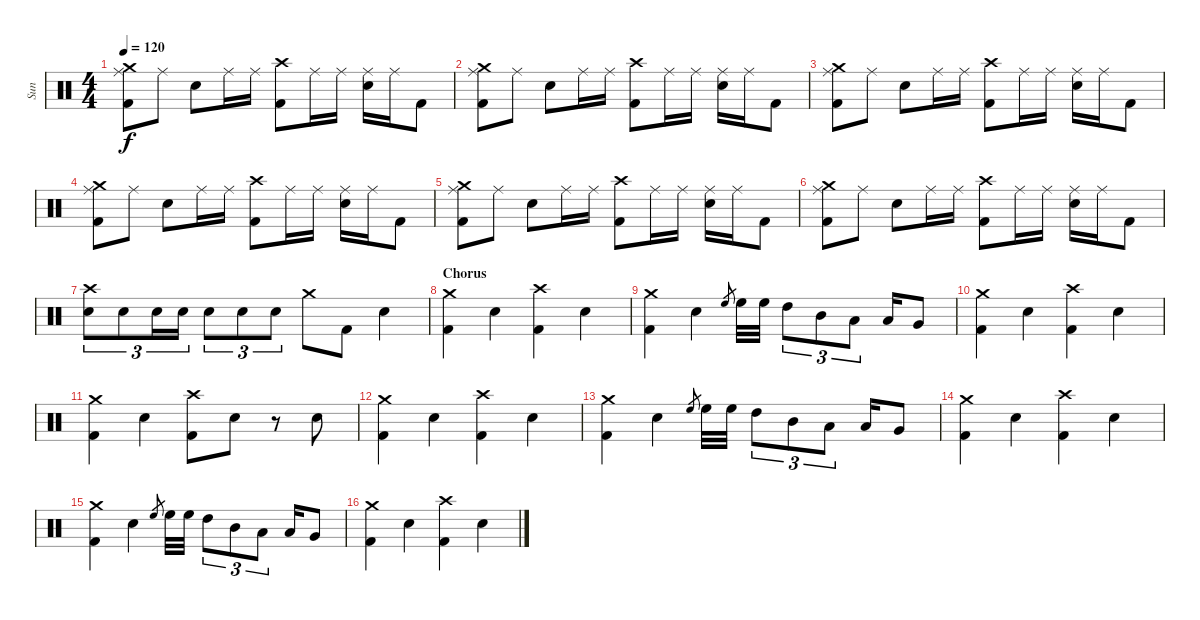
\track ("Sun" "Sun") {instrument percussion}
\staff {score}
\articulation defaults
\ts (4 4)
\tempo 120
\clef neutral
\ks c
("Ride (middle)" "Crash medium (hit)" "Kick (hit) 2").8{dy f} "Ride (middle)".8 "Electric Snare (hit)".8 "Ride (middle)".16 "Ride (middle)".16 ("Crash high (hit)" "Kick (hit) 2").8 "Ride (middle)".16 "Ride (middle)".16 ("Ride (middle)" "Electric Snare (hit)").16 "Ride (middle)".16 "Kick (hit) 2".8 |
("Ride (middle)" "Crash medium (hit)" "Kick (hit) 2").8 "Ride (middle)".8 "Electric Snare (hit)".8 "Ride (middle)".16 "Ride (middle)".16 ("Crash high (hit)" "Kick (hit) 2").8 "Ride (middle)".16 "Ride (middle)".16 ("Ride (middle)" "Electric Snare (hit)").16 "Ride (middle)".16 "Kick (hit) 2".8 |
("Ride (middle)" "Crash medium (hit)" "Kick (hit) 2").8 "Ride (middle)".8 "Electric Snare (hit)".8 "Ride (middle)".16 "Ride (middle)".16 ("Crash high (hit)" "Kick (hit) 2").8 "Ride (middle)".16 "Ride (middle)".16 ("Ride (middle)" "Electric Snare (hit)").16 "Ride (middle)".16 "Kick (hit) 2".8 |
("Ride (middle)" "Crash medium (hit)" "Kick (hit) 2").8 "Ride (middle)".8 "Electric Snare (hit)".8 "Ride (middle)".16 "Ride (middle)".16 ("Crash high (hit)" "Kick (hit) 2").8 "Ride (middle)".16 "Ride (middle)".16 ("Ride (middle)" "Electric Snare (hit)").16 "Ride (middle)".16 "Kick (hit) 2".8 |
("Ride (middle)" "Crash medium (hit)" "Kick (hit) 2").8 "Ride (middle)".8 "Electric Snare (hit)".8 "Ride (middle)".16 "Ride (middle)".16 ("Crash high (hit)" "Kick (hit) 2").8 "Ride (middle)".16 "Ride (middle)".16 ("Ride (middle)" "Electric Snare (hit)").16 "Ride (middle)".16 "Kick (hit) 2".8 |
("Ride (middle)" "Crash medium (hit)" "Kick (hit) 2").8 "Ride (middle)".8 "Electric Snare (hit)".8 "Ride (middle)".16 "Ride (middle)".16 ("Crash high (hit)" "Kick (hit) 2").8 "Ride (middle)".16 "Ride (middle)".16 ("Ride (middle)" "Electric Snare (hit)").16 "Ride (middle)".16 "Kick (hit) 2".8 |
("Crash high (hit)" "Electric Snare (hit)").8{tu (3 2)} "Electric Snare (hit)".8{tu (3 2)} "Electric Snare (hit)".16{tu (3 2)} "Electric Snare (hit)".16{tu (3 2)} "Electric Snare (hit)".8{tu (3 2)} "Electric Snare (hit)".8{tu (3 2)} "Electric Snare (hit)".8{tu (3 2)} "Crash medium (hit)".8 "Kick (hit) 2".8 "Electric Snare (hit)".4 |
\section ("" "Chorus")
("Crash medium (hit)" "Kick (hit) 2").4 "Electric Snare (hit)".4 ("Crash high (hit)" "Kick (hit) 2").4 "Electric Snare (hit)".4 |
("Crash medium (hit)" "Kick (hit) 2").4 "Electric Snare (hit)".4 "High Floor Tom (hit)".8{gr} "High Floor Tom (hit)".32 "High Floor Tom (hit)".32 "High Tom (hit)".8{tu (3 2)} "Mid Tom (hit)".8{tu (3 2)} "Low Tom (hit)".8{tu (3 2)} "Low Tom (hit)".16 "Very Low Tom (hit)".8 |
("Crash medium (hit)" "Kick (hit) 2").4 "Electric Snare (hit)".4 ("Crash high (hit)" "Kick (hit) 2").4 "Electric Snare (hit)".4 |
("Crash medium (hit)" "Kick (hit) 2").4 "Electric Snare (hit)".4 ("Crash high (hit)" "Kick (hit) 2").8 "Electric Snare (hit)".8 r.8 "Electric Snare (hit)".8 |
("Crash medium (hit)" "Kick (hit) 2").4 "Electric Snare (hit)".4 ("Crash high (hit)" "Kick (hit) 2").4 "Electric Snare (hit)".4 |
("Crash medium (hit)" "Kick (hit) 2").4 "Electric Snare (hit)".4 "High Floor Tom (hit)".8{gr} "High Floor Tom (hit)".32 "High Floor Tom (hit)".32 "High Tom (hit)".8{tu (3 2)} "Mid Tom (hit)".8{tu (3 2)} "Low Tom (hit)".8{tu (3 2)} "Low Tom (hit)".16 "Very Low Tom (hit)".8 |
("Crash medium (hit)" "Kick (hit) 2").4 "Electric Snare (hit)".4 ("Crash high (hit)" "Kick (hit) 2").4 "Electric Snare (hit)".4 |
("Crash medium (hit)" "Kick (hit) 2").4 "Electric Snare (hit)".4 "High Floor Tom (hit)".8{gr} "High Floor Tom (hit)".32 "High Floor Tom (hit)".32 "High Tom (hit)".8{tu (3 2)} "Mid Tom (hit)".8{tu (3 2)} "Low Tom (hit)".8{tu (3 2)} "Low Tom (hit)".16 "Very Low Tom (hit)".8 |
("Crash medium (hit)" "Kick (hit) 2").4 "Electric Snare (hit)".4 ("Crash high (hit)" "Kick (hit) 2").4 "Electric Snare (hit)".4
